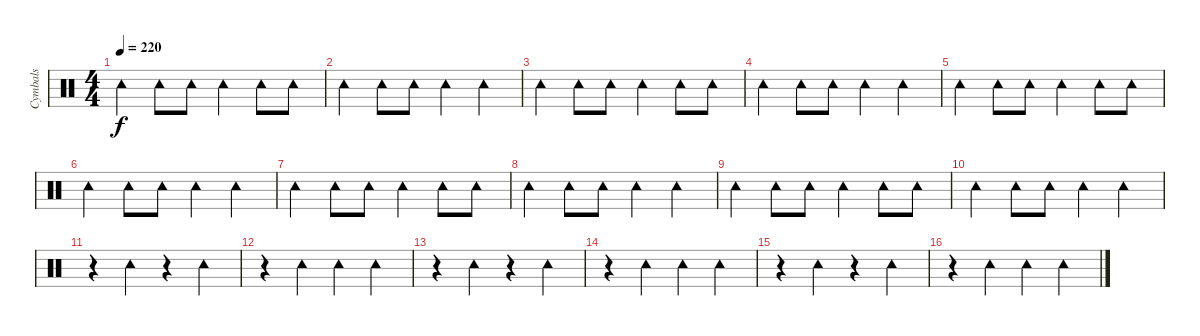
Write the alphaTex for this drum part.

\track ("Cymbals" "Cymbals") {instrument percussion}
\staff {score}
\articulation defaults
\ts (4 4)
\tempo 220
\clef neutral
\ks c "Tambourine (hit)".4{dy f} "Tambourine (hit)".8 "Tambourine (hit)".8 "Tambourine (hit)".4 "Tambourine (hit)".8 "Tambourine (hit)".8
|
"Tambourine (hit)".4 "Tambourine (hit)".8 "Tambourine (hit)".8 "Tambourine (hit)".4 "Tambourine (hit)".4 |
"Tambourine (hit)".4 "Tambourine (hit)".8 "Tambourine (hit)".8 "Tambourine (hit)".4 "Tambourine (hit)".8 "Tambourine (hit)".8 |
"Tambourine (hit)".4 "Tambourine (hit)".8 "Tambourine (hit)".8 "Tambourine (hit)".4 "Tambourine (hit)".4 |
"Tambourine (hit)".4 "Tambourine (hit)".8 "Tambourine (hit)".8 "Tambourine (hit)".4 "Tambourine (hit)".8 "Tambourine (hit)".8 |
"Tambourine (hit)".4 "Tambourine (hit)".8 "Tambourine (hit)".8 "Tambourine (hit)".4 "Tambourine (hit)".4 |
"Tambourine (hit)".4 "Tambourine (hit)".8 "Tambourine (hit)".8 "Tambourine (hit)".4 "Tambourine (hit)".8 "Tambourine (hit)".8 |
"Tambourine (hit)".4 "Tambourine (hit)".8 "Tambourine (hit)".8 "Tambourine (hit)".4 "Tambourine (hit)".4 |
"Tambourine (hit)".4 "Tambourine (hit)".8 "Tambourine (hit)".8 "Tambourine (hit)".4 "Tambourine (hit)".8 "Tambourine (hit)".8 |
"Tambourine (hit)".4 "Tambourine (hit)".8 "Tambourine (hit)".8 "Tambourine (hit)".4 "Tambourine (hit)".4 |
r.4 "Tambourine (hit)".4 r.4 "Tambourine (hit)".4 |
r.4 "Tambourine (hit)".4 "Tambourine (hit)".4 "Tambourine (hit)".4 |
r.4 "Tambourine (hit)".4 r.4 "Tambourine (hit)".4 |
r.4 "Tambourine (hit)".4 "Tambourine (hit)".4 "Tambourine (hit)".4 |
r.4 "Tambourine (hit)".4 r.4 "Tambourine (hit)".4 |
r.4 "Tambourine (hit)".4 "Tambourine (hit)".4 "Tambourine (hit)".4
